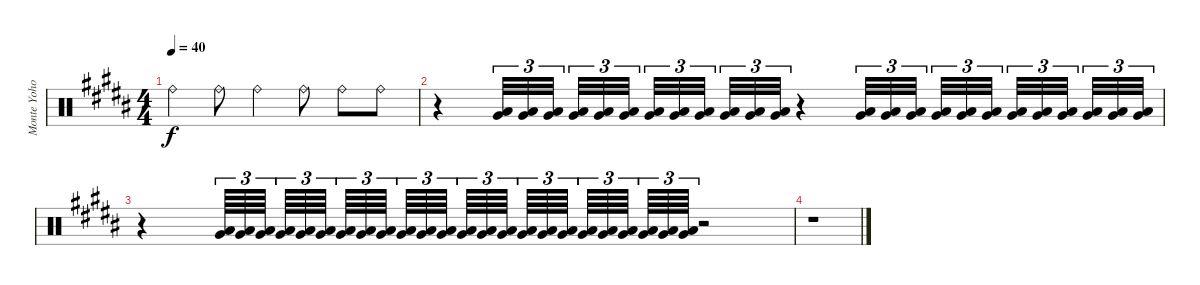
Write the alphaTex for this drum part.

\track ("Monte Yoho Drums" "Monte Yoho") {instrument percussion}
\staff {score}
\articulation defaults
\ts (4 4)
\tempo 40
\clef neutral
\ks g#minor "Ride (bell)".4{dy f} "Ride (bell)".8 "Ride (bell)".4 "Ride (bell)".8 "Ride (bell)".8 "Ride (bell)".8
|
r.4 ("Very Low Tom (hit)" "Low Floor Tom (hit)").32{tu (3 2) volume 5} ("Very Low Tom (hit)" "Low Floor Tom (hit)").32{tu (3 2)} ("Very Low Tom (hit)" "Low Floor Tom (hit)").32{tu (3 2) beam splitsecondary} ("Very Low Tom (hit)" "Low Floor Tom (hit)").32{tu (3 2)} ("Very Low Tom (hit)" "Low Floor Tom (hit)").32{tu (3 2)} ("Very Low Tom (hit)" "Low Floor Tom (hit)").32{tu (3 2) beam splitsecondary} ("Very Low Tom (hit)" "Low Floor Tom (hit)").32{tu (3 2)} ("Very Low Tom (hit)" "Low Floor Tom (hit)").32{tu (3 2)} ("Very Low Tom (hit)" "Low Floor Tom (hit)").32{tu (3 2) beam splitsecondary} ("Very Low Tom (hit)" "Low Floor Tom (hit)").32{tu (3 2)} ("Very Low Tom (hit)" "Low Floor Tom (hit)").32{tu (3 2)} ("Very Low Tom (hit)" "Low Floor Tom (hit)").32{tu (3 2)} r.4 ("Very Low Tom (hit)" "Low Floor Tom (hit)").32{tu (3 2)} ("Very Low Tom (hit)" "Low Floor Tom (hit)").32{tu (3 2)} ("Very Low Tom (hit)" "Low Floor Tom (hit)").32{tu (3 2) beam splitsecondary} ("Very Low Tom (hit)" "Low Floor Tom (hit)").32{tu (3 2)} ("Very Low Tom (hit)" "Low Floor Tom (hit)").32{tu (3 2)} ("Very Low Tom (hit)" "Low Floor Tom (hit)").32{tu (3 2) beam splitsecondary} ("Very Low Tom (hit)" "Low Floor Tom (hit)").32{tu (3 2)} ("Very Low Tom (hit)" "Low Floor Tom (hit)").32{tu (3 2)} ("Very Low Tom (hit)" "Low Floor Tom (hit)").32{tu (3 2) beam splitsecondary} ("Very Low Tom (hit)" "Low Floor Tom (hit)").32{tu (3 2)} ("Very Low Tom (hit)" "Low Floor Tom (hit)").32{tu (3 2)} ("Very Low Tom (hit)" "Low Floor Tom (hit)").32{tu (3 2)} |
r.4 ("Very Low Tom (hit)" "Low Floor Tom (hit)").64{tu (3 2) volume 7} ("Very Low Tom (hit)" "Low Floor Tom (hit)").64{tu (3 2)} ("Very Low Tom (hit)" "Low Floor Tom (hit)").64{tu (3 2) beam splitsecondary} ("Very Low Tom (hit)" "Low Floor Tom (hit)").64{tu (3 2)} ("Very Low Tom (hit)" "Low Floor Tom (hit)").64{tu (3 2)} ("Very Low Tom (hit)" "Low Floor Tom (hit)").64{tu (3 2) beam splitsecondary} ("Very Low Tom (hit)" "Low Floor Tom (hit)").64{tu (3 2)} ("Very Low Tom (hit)" "Low Floor Tom (hit)").64{tu (3 2)} ("Very Low Tom (hit)" "Low Floor Tom (hit)").64{tu (3 2) beam splitsecondary} ("Very Low Tom (hit)" "Low Floor Tom (hit)").64{tu (3 2)} ("Very Low Tom (hit)" "Low Floor Tom (hit)").64{tu (3 2)} ("Very Low Tom (hit)" "Low Floor Tom (hit)").64{tu (3 2) beam splitsecondary} ("Very Low Tom (hit)" "Low Floor Tom (hit)").64{tu (3 2)} ("Very Low Tom (hit)" "Low Floor Tom (hit)").64{tu (3 2)} ("Very Low Tom (hit)" "Low Floor Tom (hit)").64{tu (3 2) beam splitsecondary} ("Very Low Tom (hit)" "Low Floor Tom (hit)").64{tu (3 2)} ("Very Low Tom (hit)" "Low Floor Tom (hit)").64{tu (3 2)} ("Very Low Tom (hit)" "Low Floor Tom (hit)").64{tu (3 2) beam splitsecondary} ("Very Low Tom (hit)" "Low Floor Tom (hit)").64{tu (3 2)} ("Very Low Tom (hit)" "Low Floor Tom (hit)").64{tu (3 2)} ("Very Low Tom (hit)" "Low Floor Tom (hit)").64{tu (3 2) beam splitsecondary} ("Very Low Tom (hit)" "Low Floor Tom (hit)").64{tu (3 2)} ("Very Low Tom (hit)" "Low Floor Tom (hit)").64{tu (3 2)} ("Very Low Tom (hit)" "Low Floor Tom (hit)").64{tu (3 2)} r.2 |
r.1
